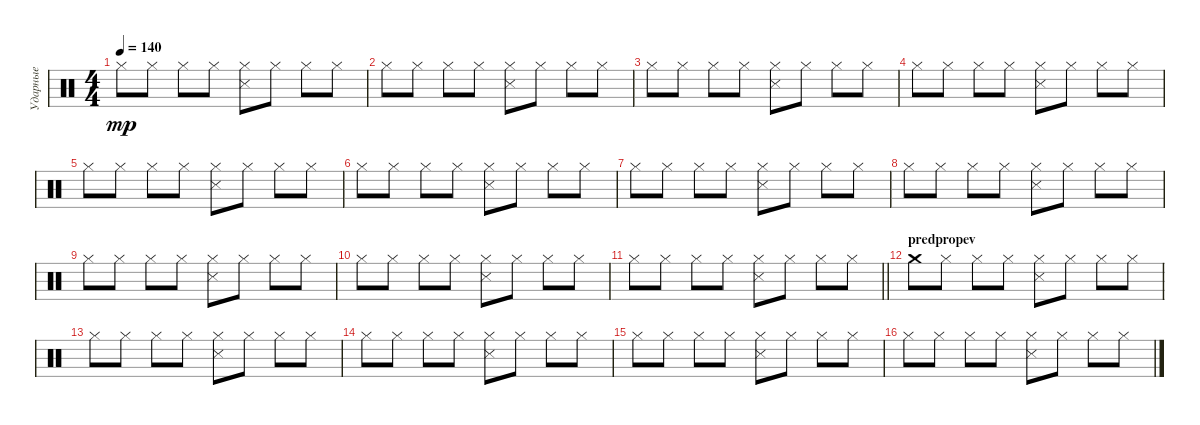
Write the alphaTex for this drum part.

\track ("Ударные" "Ударные") {instrument percussion}
\staff {score}
\articulation defaults
\ts (4 4)
\tempo 140
\clef neutral
\ks c "Hi-Hat (closed)".8{dy mp} "Hi-Hat (closed)".8 "Hi-Hat (closed)".8 "Hi-Hat (closed)".8
("Snare (side stick) 3" "Hi-Hat (closed)").8 "Hi-Hat (closed)".8 "Hi-Hat (closed)".8 "Hi-Hat (closed)".8 |
"Hi-Hat (closed)".8 "Hi-Hat (closed)".8 "Hi-Hat (closed)".8 "Hi-Hat (closed)".8 ("Snare (side stick) 3" "Hi-Hat (closed)").8 "Hi-Hat (closed)".8 "Hi-Hat (closed)".8 "Hi-Hat (closed)".8 |
"Hi-Hat (closed)".8 "Hi-Hat (closed)".8 "Hi-Hat (closed)".8 "Hi-Hat (closed)".8 ("Snare (side stick) 3" "Hi-Hat (closed)").8 "Hi-Hat (closed)".8 "Hi-Hat (closed)".8 "Hi-Hat (closed)".8 |
"Hi-Hat (closed)".8 "Hi-Hat (closed)".8 "Hi-Hat (closed)".8 "Hi-Hat (closed)".8 ("Snare (side stick) 3" "Hi-Hat (closed)").8 "Hi-Hat (closed)".8 "Hi-Hat (closed)".8 "Hi-Hat (closed)".8 |
"Hi-Hat (closed)".8 "Hi-Hat (closed)".8 "Hi-Hat (closed)".8 "Hi-Hat (closed)".8 ("Snare (side stick) 3" "Hi-Hat (closed)").8 "Hi-Hat (closed)".8 "Hi-Hat (closed)".8 "Hi-Hat (closed)".8 |
"Hi-Hat (closed)".8 "Hi-Hat (closed)".8 "Hi-Hat (closed)".8 "Hi-Hat (closed)".8 ("Snare (side stick) 3" "Hi-Hat (closed)").8 "Hi-Hat (closed)".8 "Hi-Hat (closed)".8 "Hi-Hat (closed)".8 |
"Hi-Hat (closed)".8 "Hi-Hat (closed)".8 "Hi-Hat (closed)".8 "Hi-Hat (closed)".8 ("Snare (side stick) 3" "Hi-Hat (closed)").8 "Hi-Hat (closed)".8 "Hi-Hat (closed)".8 "Hi-Hat (closed)".8 |
"Hi-Hat (closed)".8 "Hi-Hat (closed)".8 "Hi-Hat (closed)".8 "Hi-Hat (closed)".8 ("Snare (side stick) 3" "Hi-Hat (closed)").8 "Hi-Hat (closed)".8 "Hi-Hat (closed)".8 "Hi-Hat (closed)".8 |
"Hi-Hat (closed)".8 "Hi-Hat (closed)".8 "Hi-Hat (closed)".8 "Hi-Hat (closed)".8 ("Snare (side stick) 3" "Hi-Hat (closed)").8 "Hi-Hat (closed)".8 "Hi-Hat (closed)".8 "Hi-Hat (closed)".8 |
"Hi-Hat (closed)".8 "Hi-Hat (closed)".8 "Hi-Hat (closed)".8 "Hi-Hat (closed)".8 ("Snare (side stick) 3" "Hi-Hat (closed)").8 "Hi-Hat (closed)".8 "Hi-Hat (closed)".8 "Hi-Hat (closed)".8 |
\barLineRight lightlight "Hi-Hat (closed)".8 "Hi-Hat (closed)".8 "Hi-Hat (closed)".8 "Hi-Hat (closed)".8
("Snare (side stick) 3" "Hi-Hat (closed)").8 "Hi-Hat (closed)".8 "Hi-Hat (closed)".8 "Hi-Hat (closed)".8 |
\section ("" "predpropev")
"Crash medium (hit)".8 "Hi-Hat (closed)".8 "Hi-Hat (closed)".8 "Hi-Hat (closed)".8 ("Snare (side stick) 3" "Hi-Hat (closed)").8 "Hi-Hat (closed)".8 "Hi-Hat (closed)".8 "Hi-Hat (closed)".8 |
"Hi-Hat (closed)".8 "Hi-Hat (closed)".8 "Hi-Hat (closed)".8 "Hi-Hat (closed)".8 ("Snare (side stick) 3" "Hi-Hat (closed)").8 "Hi-Hat (closed)".8 "Hi-Hat (closed)".8 "Hi-Hat (closed)".8 |
"Hi-Hat (closed)".8 "Hi-Hat (closed)".8 "Hi-Hat (closed)".8 "Hi-Hat (closed)".8 ("Snare (side stick) 3" "Hi-Hat (closed)").8 "Hi-Hat (closed)".8 "Hi-Hat (closed)".8 "Hi-Hat (closed)".8 |
"Hi-Hat (closed)".8 "Hi-Hat (closed)".8 "Hi-Hat (closed)".8 "Hi-Hat (closed)".8 ("Snare (side stick) 3" "Hi-Hat (closed)").8 "Hi-Hat (closed)".8 "Hi-Hat (closed)".8 "Hi-Hat (closed)".8 |
"Hi-Hat (closed)".8 "Hi-Hat (closed)".8 "Hi-Hat (closed)".8 "Hi-Hat (closed)".8 ("Snare (side stick) 3" "Hi-Hat (closed)").8 "Hi-Hat (closed)".8 "Hi-Hat (closed)".8 "Hi-Hat (closed)".8
